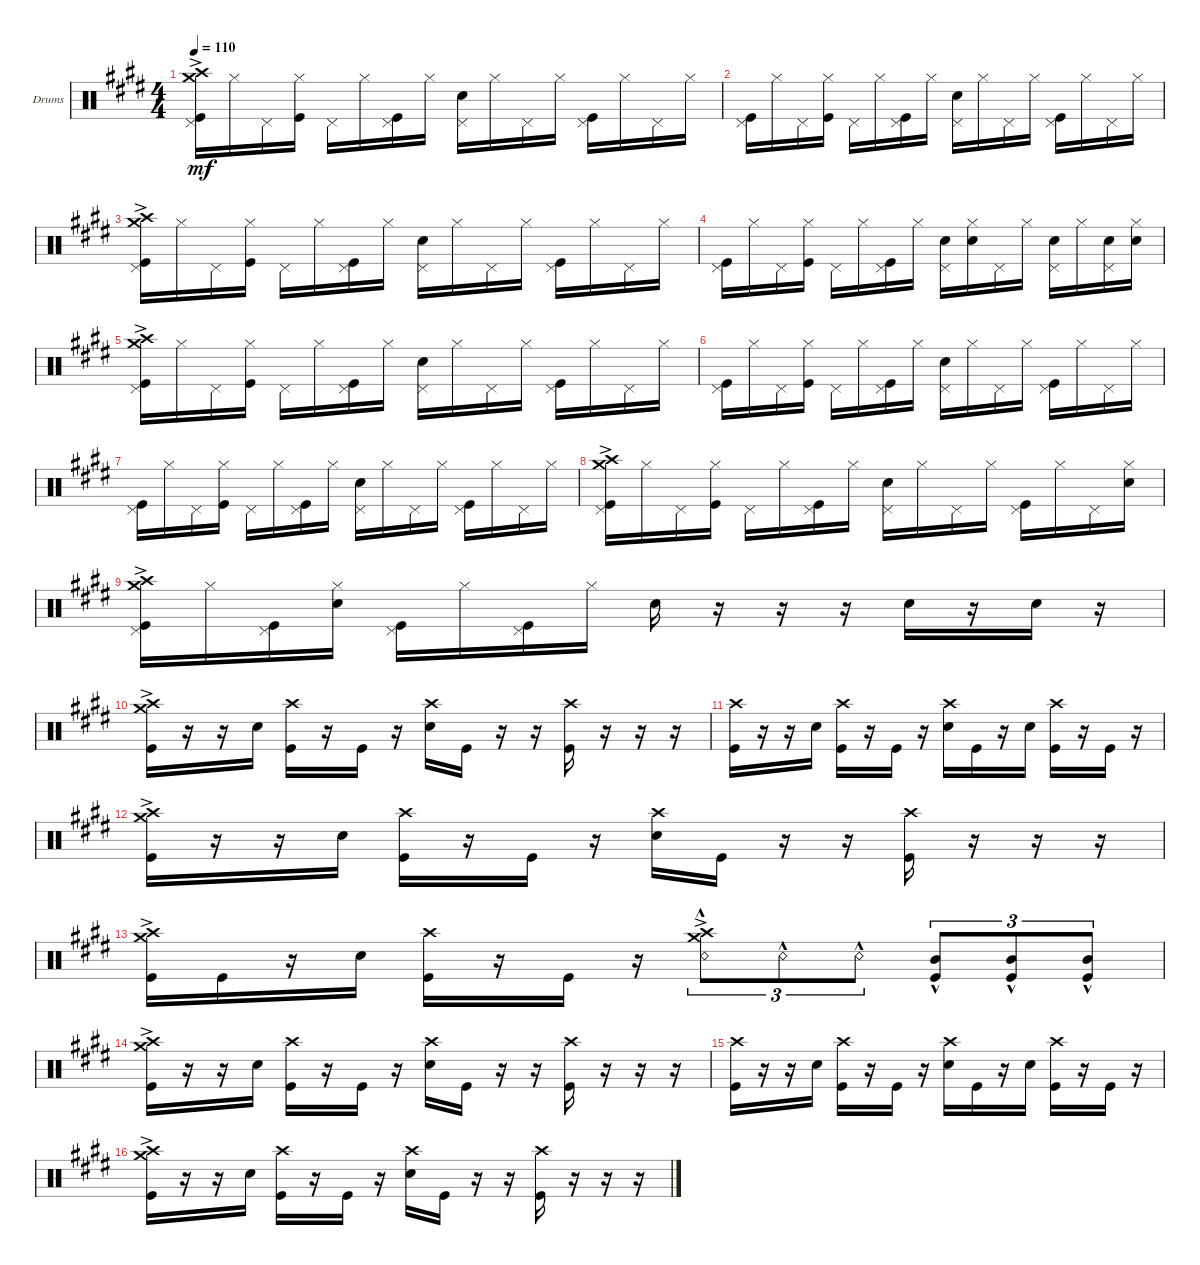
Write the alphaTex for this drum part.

\defaultSystemsLayout 4
\bracketExtendMode groupsimilarinstruments
\firstSystemTrackNameOrientation horizontal
\otherSystemsTrackNameOrientation horizontal
\track ("Drumkit" "Drums") {instrument percussion}
\staff {score}
\articulation defaults
\ts (4 4)
\tempo 110
\clef neutral
\ks c#minor
("Kick (hit)" "Pedal Hi-Hat (hit)" "Crash high (hit)"{ac} "Crash medium (hit)"{ac}).16{dy mf} "Hi-Hat (closed)".16 "Pedal Hi-Hat (hit)".16 ("Kick (hit)" "Hi-Hat (closed)").16 "Pedal Hi-Hat (hit)".16 "Hi-Hat (closed)".16 ("Kick (hit)" "Pedal Hi-Hat (hit)").16 "Hi-Hat (closed)".16 ("Snare (hit) 2" "Pedal Hi-Hat (hit)").16 "Hi-Hat (closed)".16 "Pedal Hi-Hat (hit)".16 "Hi-Hat (closed)".16 ("Kick (hit)" "Pedal Hi-Hat (hit)").16 "Hi-Hat (closed)".16 "Pedal Hi-Hat (hit)".16 "Hi-Hat (closed)".16 |
("Kick (hit)" "Pedal Hi-Hat (hit)").16 "Hi-Hat (closed)".16 "Pedal Hi-Hat (hit)".16 ("Kick (hit)" "Hi-Hat (closed)").16 "Pedal Hi-Hat (hit)".16 "Hi-Hat (closed)".16 ("Kick (hit)" "Pedal Hi-Hat (hit)").16 "Hi-Hat (closed)".16 ("Snare (hit) 2" "Pedal Hi-Hat (hit)").16 "Hi-Hat (closed)".16 "Pedal Hi-Hat (hit)".16 "Hi-Hat (closed)".16 ("Kick (hit)" "Pedal Hi-Hat (hit)").16 "Hi-Hat (closed)".16 "Pedal Hi-Hat (hit)".16 "Hi-Hat (closed)".16 |
("Kick (hit)" "Pedal Hi-Hat (hit)" "Crash high (hit)"{ac} "Crash medium (hit)"{ac}).16 "Hi-Hat (closed)".16 "Pedal Hi-Hat (hit)".16 ("Kick (hit)" "Hi-Hat (closed)").16 "Pedal Hi-Hat (hit)".16 "Hi-Hat (closed)".16 ("Kick (hit)" "Pedal Hi-Hat (hit)").16 "Hi-Hat (closed)".16 ("Snare (hit) 2" "Pedal Hi-Hat (hit)").16 "Hi-Hat (closed)".16 "Pedal Hi-Hat (hit)".16 "Hi-Hat (closed)".16 ("Kick (hit)" "Pedal Hi-Hat (hit)").16 "Hi-Hat (closed)".16 "Pedal Hi-Hat (hit)".16 "Hi-Hat (closed)".16 |
("Kick (hit)" "Pedal Hi-Hat (hit)").16 "Hi-Hat (closed)".16 "Pedal Hi-Hat (hit)".16 ("Kick (hit)" "Hi-Hat (closed)").16 "Pedal Hi-Hat (hit)".16 "Hi-Hat (closed)".16 ("Kick (hit)" "Pedal Hi-Hat (hit)").16 "Hi-Hat (closed)".16 ("Snare (hit) 2" "Pedal Hi-Hat (hit)").16 ("Hi-Hat (closed)" "Snare (hit) 2").16 "Pedal Hi-Hat (hit)".16 "Hi-Hat (closed)".16 ("Pedal Hi-Hat (hit)" "Snare (hit) 2").16 "Hi-Hat (closed)".16 ("Pedal Hi-Hat (hit)" "Snare (hit) 2").16 ("Hi-Hat (closed)" "Snare (hit) 2").16 |
("Kick (hit)" "Pedal Hi-Hat (hit)" "Crash high (hit)"{ac} "Crash medium (hit)"{ac}).16 "Hi-Hat (closed)".16 "Pedal Hi-Hat (hit)".16 ("Kick (hit)" "Hi-Hat (closed)").16 "Pedal Hi-Hat (hit)".16 "Hi-Hat (closed)".16 ("Kick (hit)" "Pedal Hi-Hat (hit)").16 "Hi-Hat (closed)".16 ("Snare (hit) 2" "Pedal Hi-Hat (hit)").16 "Hi-Hat (closed)".16 "Pedal Hi-Hat (hit)".16 "Hi-Hat (closed)".16 ("Kick (hit)" "Pedal Hi-Hat (hit)").16 "Hi-Hat (closed)".16 "Pedal Hi-Hat (hit)".16 "Hi-Hat (closed)".16 |
("Kick (hit)" "Pedal Hi-Hat (hit)").16 "Hi-Hat (closed)".16 "Pedal Hi-Hat (hit)".16 ("Kick (hit)" "Hi-Hat (closed)").16 "Pedal Hi-Hat (hit)".16 "Hi-Hat (closed)".16 ("Kick (hit)" "Pedal Hi-Hat (hit)").16 "Hi-Hat (closed)".16 ("Snare (hit) 2" "Pedal Hi-Hat (hit)").16 "Hi-Hat (closed)".16 "Pedal Hi-Hat (hit)".16 "Hi-Hat (closed)".16 ("Kick (hit)" "Pedal Hi-Hat (hit)").16 "Hi-Hat (closed)".16 "Pedal Hi-Hat (hit)".16 "Hi-Hat (closed)".16 |
("Kick (hit)" "Pedal Hi-Hat (hit)").16 "Hi-Hat (closed)".16 "Pedal Hi-Hat (hit)".16 ("Kick (hit)" "Hi-Hat (closed)").16 "Pedal Hi-Hat (hit)".16 "Hi-Hat (closed)".16 ("Kick (hit)" "Pedal Hi-Hat (hit)").16 "Hi-Hat (closed)".16 ("Snare (hit) 2" "Pedal Hi-Hat (hit)").16 "Hi-Hat (closed)".16 "Pedal Hi-Hat (hit)".16 "Hi-Hat (closed)".16 ("Kick (hit)" "Pedal Hi-Hat (hit)").16 "Hi-Hat (closed)".16 "Pedal Hi-Hat (hit)".16 "Hi-Hat (closed)".16 |
("Kick (hit)" "Pedal Hi-Hat (hit)" "Crash medium (hit)"{ac} "Crash high (hit)"{ac}).16 "Hi-Hat (closed)".16 "Pedal Hi-Hat (hit)".16 ("Kick (hit)" "Hi-Hat (closed)").16 "Pedal Hi-Hat (hit)".16 "Hi-Hat (closed)".16 ("Kick (hit)" "Pedal Hi-Hat (hit)").16 "Hi-Hat (closed)".16 ("Snare (hit) 2" "Pedal Hi-Hat (hit)").16 "Hi-Hat (closed)".16 "Pedal Hi-Hat (hit)".16 "Hi-Hat (closed)".16 ("Kick (hit)" "Pedal Hi-Hat (hit)").16 "Hi-Hat (closed)".16 "Pedal Hi-Hat (hit)".16 ("Hi-Hat (closed)" "Snare (hit) 2").16 |
("Kick (hit)" "Pedal Hi-Hat (hit)" "Crash medium (hit)"{ac} "Crash high (hit)"{ac}).16 "Hi-Hat (closed)".16 ("Pedal Hi-Hat (hit)" "Kick (hit)").16 ("Hi-Hat (closed)" "Snare (hit) 2").16 ("Pedal Hi-Hat (hit)" "Kick (hit)").16 "Hi-Hat (closed)".16 ("Kick (hit)" "Pedal Hi-Hat (hit)").16 "Hi-Hat (closed)".16 "Snare (hit) 2".16 r.16 r.16 r.16 "Snare (hit) 2".16 r.16 "Snare (hit) 2".16 r.16 |
("Kick (hit)" "Crash high (hit)"{ac} "Crash medium (hit)"{ac}).16 r.16 r.16 "Snare (hit) 2".16 ("Kick (hit)" "Crash high (hit)").16 r.16 "Kick (hit)".16 r.16 ("Snare (hit) 2" "Crash high (hit)").16 "Kick (hit)".16 r.16 r.16 ("Kick (hit)" "Crash high (hit)").16 r.16 r.16 r.16 |
("Kick (hit)" "Crash high (hit)").16 r.16 r.16 "Snare (hit) 2".16 ("Kick (hit)" "Crash high (hit)").16 r.16 "Kick (hit)".16 r.16 ("Snare (hit) 2" "Crash high (hit)").16 "Kick (hit)".16 r.16 "Snare (hit) 2".16 ("Kick (hit)" "Crash high (hit)").16 r.16 "Kick (hit)".16 r.16 |
("Kick (hit)" "Crash high (hit)"{ac} "Crash medium (hit)"{ac}).16 r.16 r.16 "Snare (hit) 2".16 ("Kick (hit)" "Crash high (hit)").16 r.16 "Kick (hit)".16 r.16 ("Snare (hit) 2" "Crash high (hit)").16 "Kick (hit)".16 r.16 r.16 ("Kick (hit)" "Crash high (hit)").16 r.16 r.16 r.16 |
("Kick (hit)" "Crash medium (hit)"{ac} "Crash high (hit)"{ac}).16 "Kick (hit)".16 r.16 "Snare (hit) 2".16 ("Kick (hit)" "Crash high (hit)").16 r.16 "Kick (hit)".16 r.16 ("Crash medium (hit)"{ac} "Crash high (hit)"{ac} "Snare (rim shot)"{hac}).8{tu (3 2)} "Snare (rim shot)"{hac}.8{tu (3 2)} "Snare (rim shot)"{hac}.8{tu (3 2)} ("Kick (hit)"{hac} "Mid Tom (hit)").8{tu (3 2)} ("Kick (hit)"{hac} "Mid Tom (hit)").8{tu (3 2)} ("Kick (hit)"{hac} "Mid Tom (hit)").8{tu (3 2)} |
("Kick (hit)" "Crash high (hit)"{ac} "Crash medium (hit)"{ac}).16 r.16 r.16 "Snare (hit) 2".16 ("Kick (hit)" "Crash high (hit)").16 r.16 "Kick (hit)".16 r.16 ("Snare (hit) 2" "Crash high (hit)").16 "Kick (hit)".16 r.16 r.16 ("Kick (hit)" "Crash high (hit)").16 r.16 r.16 r.16 |
("Kick (hit)" "Crash high (hit)").16 r.16 r.16 "Snare (hit) 2".16 ("Kick (hit)" "Crash high (hit)").16 r.16 "Kick (hit)".16 r.16 ("Snare (hit) 2" "Crash high (hit)").16 "Kick (hit)".16 r.16 "Snare (hit) 2".16 ("Kick (hit)" "Crash high (hit)").16 r.16 "Kick (hit)".16 r.16 |
("Kick (hit)" "Crash high (hit)"{ac} "Crash medium (hit)"{ac}).16 r.16 r.16 "Snare (hit) 2".16 ("Kick (hit)" "Crash high (hit)").16 r.16 "Kick (hit)".16 r.16 ("Snare (hit) 2" "Crash high (hit)").16 "Kick (hit)".16 r.16 r.16 ("Kick (hit)" "Crash high (hit)").16 r.16 r.16 r.16
